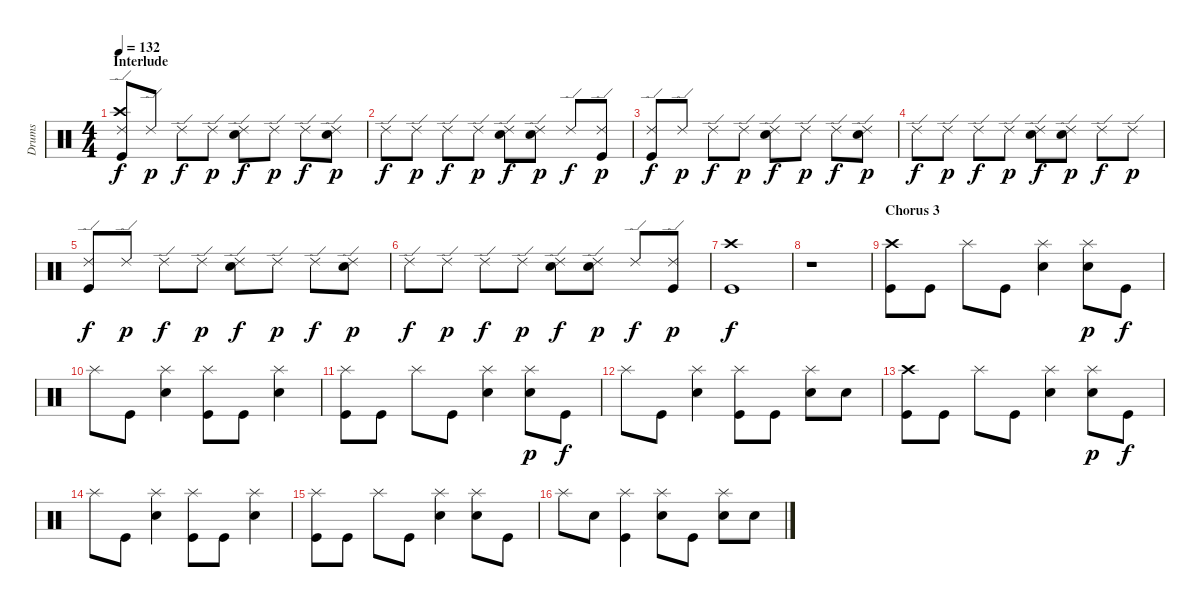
\track ("Drums" "Drums") {instrument percussion}
\staff {score}
\articulation defaults
\ts (4 4)
\section ("" "Interlude")
\tempo 132
\clef neutral
\ks c
("Ride (edge) 2" "Crash high (hit)" "Kick (hit)").8{dy f} "Ride (edge) 2".8{dy p} "Ride (edge) 2".8{dy f} "Ride (edge) 2".8{dy p} ("Snare (hit) 2" "Ride (edge) 2").8{dy f} "Ride (edge) 2".8{dy p} "Ride (edge) 2".8{dy f} ("Snare (hit) 2" "Ride (edge) 2").8{dy p} |
"Ride (edge) 2".8{dy f} "Ride (edge) 2".8{dy p} "Ride (edge) 2".8{dy f} "Ride (edge) 2".8{dy p} ("Snare (hit) 2" "Ride (edge) 2").8{dy f} ("Snare (hit) 2" "Ride (edge) 2").8{dy p} "Ride (edge) 2".8{dy f} ("Ride (edge) 2" "Kick (hit)").8{dy p} |
("Ride (edge) 2" "Kick (hit)").8{dy f} "Ride (edge) 2".8{dy p} "Ride (edge) 2".8{dy f} "Ride (edge) 2".8{dy p} ("Snare (hit) 2" "Ride (edge) 2").8{dy f} "Ride (edge) 2".8{dy p} "Ride (edge) 2".8{dy f} ("Snare (hit) 2" "Ride (edge) 2").8{dy p} |
"Ride (edge) 2".8{dy f} "Ride (edge) 2".8{dy p} "Ride (edge) 2".8{dy f} "Ride (edge) 2".8{dy p} ("Snare (hit) 2" "Ride (edge) 2").8{dy f} ("Snare (hit) 2" "Ride (edge) 2").8{dy p} "Ride (edge) 2".8{dy f} "Ride (edge) 2".8{dy p} |
("Ride (edge) 2" "Kick (hit)").8{dy f} "Ride (edge) 2".8{dy p} "Ride (edge) 2".8{dy f} "Ride (edge) 2".8{dy p} ("Snare (hit) 2" "Ride (edge) 2").8{dy f} "Ride (edge) 2".8{dy p} "Ride (edge) 2".8{dy f} ("Snare (hit) 2" "Ride (edge) 2").8{dy p} |
"Ride (edge) 2".8{dy f} "Ride (edge) 2".8{dy p} "Ride (edge) 2".8{dy f} "Ride (edge) 2".8{dy p} ("Snare (hit) 2" "Ride (edge) 2").8{dy f} ("Snare (hit) 2" "Ride (edge) 2").8{dy p} "Ride (edge) 2".8{dy f} ("Ride (edge) 2" "Kick (hit)").8{dy p} |
("Crash high (hit)" "Kick (hit)").1{dy f} |
r.1 |
\section ("" "Chorus 3")
("Crash high (hit)" "Kick (hit)").8 "Kick (hit)".8 "Splash (hit)".8 "Kick (hit)".8 ("Snare (hit) 2" "Splash (hit)").4 ("Snare (hit) 2" "Splash (hit)").8{dy p} "Kick (hit)".8{dy f} |
"Splash (hit)".8 "Kick (hit)".8 ("Snare (hit) 2" "Splash (hit)").4 ("Splash (hit)" "Kick (hit)").8 "Kick (hit)".8 ("Snare (hit) 2" "Splash (hit)").4 |
("Splash (hit)" "Kick (hit)").8 "Kick (hit)".8 "Splash (hit)".8 "Kick (hit)".8 ("Snare (hit) 2" "Splash (hit)").4 ("Snare (hit) 2" "Splash (hit)").8{dy p} "Kick (hit)".8{dy f} |
"Splash (hit)".8 "Kick (hit)".8 ("Snare (hit) 2" "Splash (hit)").4 ("Splash (hit)" "Kick (hit)").8 "Kick (hit)".8 ("Snare (hit) 2" "Splash (hit)").8 "Snare (hit) 2".8 |
("Crash high (hit)" "Kick (hit)").8 "Kick (hit)".8 "Splash (hit)".8 "Kick (hit)".8 ("Snare (hit) 2" "Splash (hit)").4 ("Snare (hit) 2" "Splash (hit)").8{dy p} "Kick (hit)".8{dy f} |
"Splash (hit)".8 "Kick (hit)".8 ("Snare (hit) 2" "Splash (hit)").4 ("Splash (hit)" "Kick (hit)").8 "Kick (hit)".8 ("Snare (hit) 2" "Splash (hit)").4 |
("Splash (hit)" "Kick (hit)").8 "Kick (hit)".8 "Splash (hit)".8 "Kick (hit)".8 ("Snare (hit) 2" "Splash (hit)").4 ("Snare (hit) 2" "Splash (hit)").8 "Kick (hit)".8 |
"Splash (hit)".8 "Snare (hit) 2".8 ("Splash (hit)" "Kick (hit)").4 ("Snare (hit) 2" "Splash (hit)").8 "Kick (hit)".8 ("Snare (hit) 2" "Splash (hit)").8 "Snare (hit) 2".8
